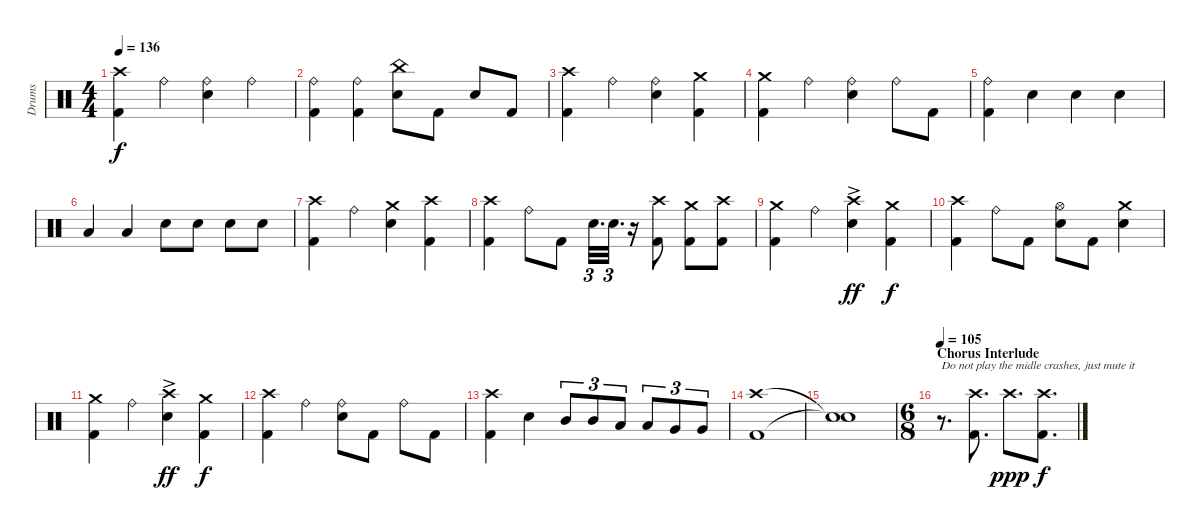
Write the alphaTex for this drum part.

\track ("Drums" "Drums") {instrument percussion}
\staff {score}
\articulation defaults
\ts (4 4)
\tempo 136
\clef neutral
\ks c
("Crash high (hit)" "Kick (hit) 2").4{dy f} "Ride (bell)".4 ("Ride (bell)" "Electric Snare (hit)").4 "Ride (bell)".4 |
("Ride (bell)" "Kick (hit) 2").4 ("Ride (bell)" "Kick (hit) 2").4 ("China (hit)" "Electric Snare (hit)").8 "Kick (hit) 2".8 "Electric Snare (hit)".8 "Kick (hit) 2".8 |
("Crash high (hit)" "Kick (hit) 2").4 "Ride (bell)".4 ("Ride (bell)" "Electric Snare (hit)").4 ("Crash medium (hit)" "Kick (hit) 2").4 |
("Crash medium (hit)" "Kick (hit) 2").4 "Ride (bell)".4 ("Ride (bell)" "Electric Snare (hit)").4 "Ride (bell)".8 "Kick (hit) 2".8 |
("Ride (bell)" "Kick (hit) 2").4 "Electric Snare (hit)".4 "Electric Snare (hit)".4 "Electric Snare (hit)".4 |
"Low Floor Tom (hit)".4 "Low Floor Tom (hit)".4 "Electric Snare (hit)".8 "Electric Snare (hit)".8 "Electric Snare (hit)".8 "Electric Snare (hit)".8 |
("Crash high (hit)" "Kick (hit) 2").4 "Ride (bell)".4 ("Crash medium (hit)" "Electric Snare (hit)").4 ("Crash high (hit)" "Kick (hit) 2").4 |
("Crash high (hit)" "Kick (hit) 2").4 "Ride (bell)".8 "Kick (hit) 2".8 "Electric Snare (hit)".32{d tu (3 2)} "Electric Snare (hit)".32{d tu (3 2)} r.16 ("Crash high (hit)" "Kick (hit) 2").8 ("Crash medium (hit)" "Kick (hit) 2").8 ("Crash high (hit)" "Kick (hit) 2").8 |
("Crash medium (hit)" "Kick (hit) 2").4 "Ride (bell)".4 ("Crash high (hit)"{ac} "Electric Snare (hit)"{ac}).4{dy ff} ("Crash medium (hit)" "Kick (hit) 2").4{dy f} |
("Crash high (hit)" "Kick (hit) 2").4 "Ride (bell)".8 "Kick (hit) 2".8 ("Hi-Hat (open)" "Electric Snare (hit)").8 "Kick (hit) 2".8 ("Crash medium (hit)" "Electric Snare (hit)").4 |
("Crash medium (hit)" "Kick (hit) 2").4 "Ride (bell)".4 ("Crash high (hit)"{ac} "Electric Snare (hit)"{ac}).4{dy ff} ("Crash medium (hit)" "Kick (hit) 2").4{dy f} |
("Crash high (hit)" "Kick (hit) 2").4 "Ride (bell)".4 ("Ride (bell)" "Electric Snare (hit)").8 "Kick (hit) 2".8 "Ride (bell)".8 "Kick (hit) 2".8 |
("Crash high (hit)" "Kick (hit) 2").4 "Electric Snare (hit)".4 "Mid Tom (hit)".8{tu (3 2)} "Mid Tom (hit)".8{tu (3 2)} "Low Tom (hit)".8{tu (3 2)} "Low Tom (hit)".8{tu (3 2)} "Very Low Tom (hit)".8{tu (3 2)} "Very Low Tom (hit)".8{tu (3 2)} |
("Crash high (hit)" "Kick (hit) 2").1 |
("Snare (hit)"{t} "Snare (hit)"{t}).1 |
\ts (6 8)
\section ("" "Chorus Interlude")
\tempo 105
r.8{d txt "Do not play the midle crashes, just mute it"} ("Crash high (hit)" "Kick (hit) 2").8{d} "Crash high (hit)".8{d dy ppp} ("Crash high (hit)" "Kick (hit) 2").8{d dy f}
